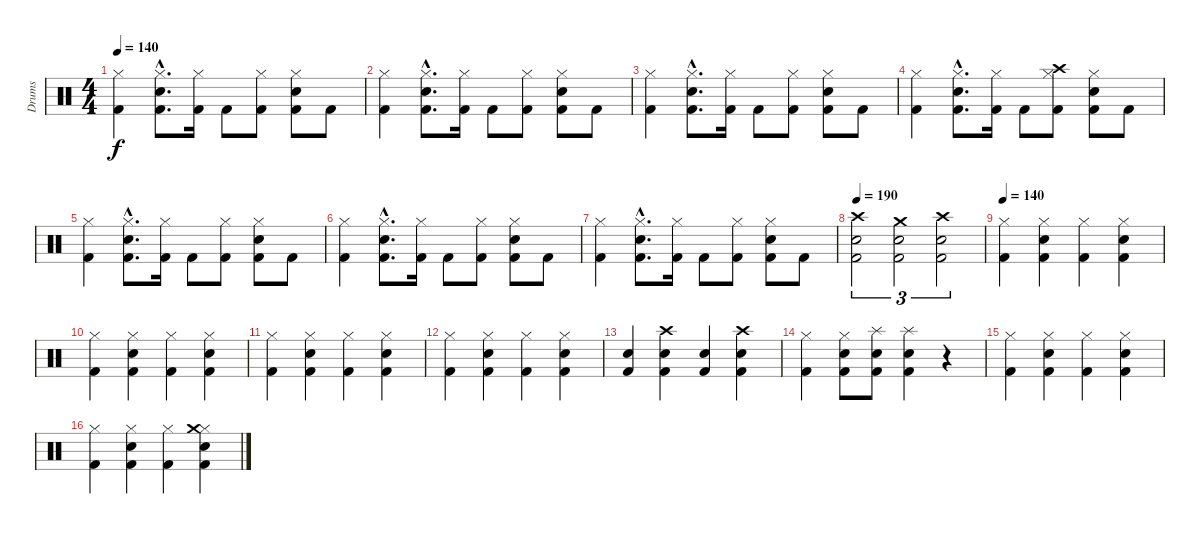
\track ("Drums" "Drums") {instrument percussion}
\staff {score}
\articulation defaults
\ts (4 4)
\tempo 140
\clef neutral
\ks c
("Hi-Hat (closed)" "Kick (hit) 2").4{dy f} ("Hi-Hat (closed)"{hac} "Electric Snare (hit)"{hac} "Kick (hit) 2"{hac}).8{d} ("Hi-Hat (closed)" "Kick (hit) 2").16 "Kick (hit) 2".8 ("Hi-Hat (closed)" "Kick (hit) 2").8 ("Hi-Hat (closed)" "Electric Snare (hit)" "Kick (hit) 2").8 "Kick (hit) 2".8 |
("Hi-Hat (closed)" "Kick (hit) 2").4 ("Hi-Hat (closed)"{hac} "Electric Snare (hit)"{hac} "Kick (hit) 2"{hac}).8{d} ("Hi-Hat (closed)" "Kick (hit) 2").16 "Kick (hit) 2".8 ("Hi-Hat (closed)" "Kick (hit) 2").8 ("Hi-Hat (closed)" "Electric Snare (hit)" "Kick (hit) 2").8 "Kick (hit) 2".8 |
("Hi-Hat (closed)" "Kick (hit) 2").4 ("Hi-Hat (closed)"{hac} "Electric Snare (hit)"{hac} "Kick (hit) 2"{hac}).8{d} ("Hi-Hat (closed)" "Kick (hit) 2").16 "Kick (hit) 2".8 ("Hi-Hat (closed)" "Kick (hit) 2").8 ("Hi-Hat (closed)" "Electric Snare (hit)" "Kick (hit) 2").8 "Kick (hit) 2".8 |
("Hi-Hat (closed)" "Kick (hit) 2").4 ("Hi-Hat (closed)"{hac} "Electric Snare (hit)"{hac} "Kick (hit) 2"{hac}).8{d} ("Hi-Hat (closed)" "Kick (hit) 2").16 "Kick (hit) 2".8 ("Hi-Hat (closed)" "Crash high (hit)" "Kick (hit) 2").8 ("Hi-Hat (closed)" "Electric Snare (hit)" "Kick (hit) 2").8 "Kick (hit) 2".8 |
("Hi-Hat (closed)" "Kick (hit) 2").4 ("Hi-Hat (closed)"{hac} "Electric Snare (hit)"{hac} "Kick (hit) 2"{hac}).8{d} ("Hi-Hat (closed)" "Kick (hit) 2").16 "Kick (hit) 2".8 ("Hi-Hat (closed)" "Kick (hit) 2").8 ("Hi-Hat (closed)" "Electric Snare (hit)" "Kick (hit) 2").8 "Kick (hit) 2".8 |
("Hi-Hat (closed)" "Kick (hit) 2").4 ("Hi-Hat (closed)"{hac} "Electric Snare (hit)"{hac} "Kick (hit) 2"{hac}).8{d} ("Hi-Hat (closed)" "Kick (hit) 2").16 "Kick (hit) 2".8 ("Hi-Hat (closed)" "Kick (hit) 2").8 ("Hi-Hat (closed)" "Electric Snare (hit)" "Kick (hit) 2").8 "Kick (hit) 2".8 |
("Hi-Hat (closed)" "Kick (hit) 2").4 ("Hi-Hat (closed)"{hac} "Electric Snare (hit)"{hac} "Kick (hit) 2"{hac}).8{d} ("Hi-Hat (closed)" "Kick (hit) 2").16 "Kick (hit) 2".8 ("Hi-Hat (closed)" "Kick (hit) 2").8 ("Hi-Hat (closed)" "Electric Snare (hit)" "Kick (hit) 2").8 "Kick (hit) 2".8 |
\tempo 190
("Crash high (hit)" "Electric Snare (hit)" "Kick (hit) 2").2{tu (3 2)} ("Crash medium (hit)" "Electric Snare (hit)" "Kick (hit) 2").2{tu (3 2)} ("Crash high (hit)" "Electric Snare (hit)" "Kick (hit) 2").2{tu (3 2)} |
\tempo 140
("Hi-Hat (closed)" "Kick (hit) 2").4 ("Hi-Hat (closed)" "Electric Snare (hit)" "Kick (hit) 2").4 ("Hi-Hat (closed)" "Kick (hit) 2").4 ("Hi-Hat (closed)" "Electric Snare (hit)" "Kick (hit) 2").4 |
("Hi-Hat (closed)" "Kick (hit) 2").4 ("Hi-Hat (closed)" "Electric Snare (hit)" "Kick (hit) 2").4 ("Hi-Hat (closed)" "Kick (hit) 2").4 ("Hi-Hat (closed)" "Electric Snare (hit)" "Kick (hit) 2").4 |
("Hi-Hat (closed)" "Kick (hit) 2").4 ("Hi-Hat (closed)" "Electric Snare (hit)" "Kick (hit) 2").4 ("Hi-Hat (closed)" "Kick (hit) 2").4 ("Hi-Hat (closed)" "Electric Snare (hit)" "Kick (hit) 2").4 |
("Hi-Hat (closed)" "Kick (hit) 2").4 ("Hi-Hat (closed)" "Electric Snare (hit)" "Kick (hit) 2").4 ("Hi-Hat (closed)" "Kick (hit) 2").4 ("Hi-Hat (closed)" "Electric Snare (hit)" "Kick (hit) 2").4 |
("Electric Snare (hit)" "Kick (hit) 2").4 ("Crash high (hit)" "Electric Snare (hit)" "Kick (hit) 2").4 ("Electric Snare (hit)" "Kick (hit) 2").4 ("Crash high (hit)" "Electric Snare (hit)" "Kick (hit) 2").4 |
("Hi-Hat (closed)" "Kick (hit) 2").4 ("Hi-Hat (closed)" "Electric Snare (hit)" "Kick (hit) 2").8 ("Splash (hit)" "Electric Snare (hit)" "Kick (hit) 2").8 ("Splash (hit)" "Electric Snare (hit)" "Kick (hit) 2").4 r.4 |
("Hi-Hat (closed)" "Kick (hit) 2").4 ("Hi-Hat (closed)" "Electric Snare (hit)" "Kick (hit) 2").4 ("Hi-Hat (closed)" "Kick (hit) 2").4 ("Hi-Hat (closed)" "Electric Snare (hit)" "Kick (hit) 2").4 |
("Hi-Hat (closed)" "Kick (hit) 2").4 ("Hi-Hat (closed)" "Electric Snare (hit)" "Kick (hit) 2").4 ("Hi-Hat (closed)" "Kick (hit) 2").4 ("Hi-Hat (closed)" "Crash medium (hit)" "Electric Snare (hit)" "Kick (hit) 2").4
